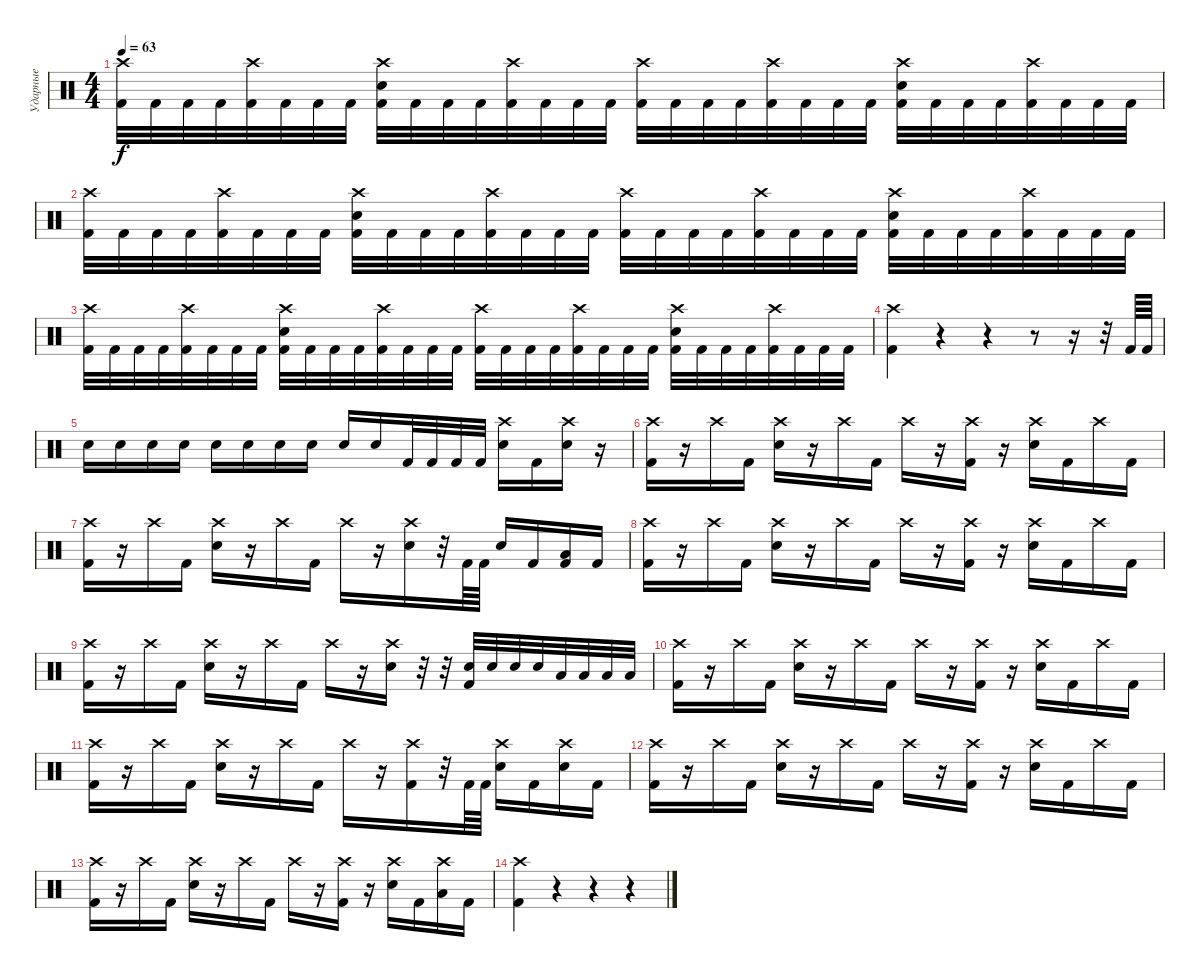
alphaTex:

\track ("Ударные" "Ударные") {instrument percussion}
\staff {score}
\articulation defaults
\ts (4 4)
\tempo 63
\clef neutral
\ks c
("Crash high (hit)" "Kick (hit) 2").32{dy f} "Kick (hit) 2".32 "Kick (hit) 2".32 "Kick (hit) 2".32 ("Crash high (hit)" "Kick (hit) 2").32 "Kick (hit) 2".32 "Kick (hit) 2".32 "Kick (hit) 2".32 ("Crash high (hit)" "Electric Snare (hit)" "Kick (hit) 2").32 "Kick (hit) 2".32 "Kick (hit) 2".32 "Kick (hit) 2".32 ("Crash high (hit)" "Kick (hit) 2").32 "Kick (hit) 2".32 "Kick (hit) 2".32 "Kick (hit) 2".32 ("Crash high (hit)" "Kick (hit) 2").32 "Kick (hit) 2".32 "Kick (hit) 2".32 "Kick (hit) 2".32 ("Crash high (hit)" "Kick (hit) 2").32 "Kick (hit) 2".32 "Kick (hit) 2".32 "Kick (hit) 2".32 ("Crash high (hit)" "Electric Snare (hit)" "Kick (hit) 2").32 "Kick (hit) 2".32 "Kick (hit) 2".32 "Kick (hit) 2".32 ("Crash high (hit)" "Kick (hit) 2").32 "Kick (hit) 2".32 "Kick (hit) 2".32 "Kick (hit) 2".32 |
("Crash high (hit)" "Kick (hit) 2").32 "Kick (hit) 2".32 "Kick (hit) 2".32 "Kick (hit) 2".32 ("Crash high (hit)" "Kick (hit) 2").32 "Kick (hit) 2".32 "Kick (hit) 2".32 "Kick (hit) 2".32 ("Crash high (hit)" "Electric Snare (hit)" "Kick (hit) 2").32 "Kick (hit) 2".32 "Kick (hit) 2".32 "Kick (hit) 2".32 ("Crash high (hit)" "Kick (hit) 2").32 "Kick (hit) 2".32 "Kick (hit) 2".32 "Kick (hit) 2".32 ("Crash high (hit)" "Kick (hit) 2").32 "Kick (hit) 2".32 "Kick (hit) 2".32 "Kick (hit) 2".32 ("Crash high (hit)" "Kick (hit) 2").32 "Kick (hit) 2".32 "Kick (hit) 2".32 "Kick (hit) 2".32 ("Crash high (hit)" "Electric Snare (hit)" "Kick (hit) 2").32 "Kick (hit) 2".32 "Kick (hit) 2".32 "Kick (hit) 2".32 ("Crash high (hit)" "Kick (hit) 2").32 "Kick (hit) 2".32 "Kick (hit) 2".32 "Kick (hit) 2".32 |
("Crash high (hit)" "Kick (hit) 2").32 "Kick (hit) 2".32 "Kick (hit) 2".32 "Kick (hit) 2".32 ("Crash high (hit)" "Kick (hit) 2").32 "Kick (hit) 2".32 "Kick (hit) 2".32 "Kick (hit) 2".32 ("Crash high (hit)" "Electric Snare (hit)" "Kick (hit) 2").32 "Kick (hit) 2".32 "Kick (hit) 2".32 "Kick (hit) 2".32 ("Crash high (hit)" "Kick (hit) 2").32 "Kick (hit) 2".32 "Kick (hit) 2".32 "Kick (hit) 2".32 ("Crash high (hit)" "Kick (hit) 2").32 "Kick (hit) 2".32 "Kick (hit) 2".32 "Kick (hit) 2".32 ("Crash high (hit)" "Kick (hit) 2").32 "Kick (hit) 2".32 "Kick (hit) 2".32 "Kick (hit) 2".32 ("Crash high (hit)" "Electric Snare (hit)" "Kick (hit) 2").32 "Kick (hit) 2".32 "Kick (hit) 2".32 "Kick (hit) 2".32 ("Crash high (hit)" "Kick (hit) 2").32 "Kick (hit) 2".32 "Kick (hit) 2".32 "Kick (hit) 2".32 |
("Crash high (hit)" "Kick (hit) 2").4 r.4 r.4 r.8 r.16 r.32 "Kick (hit) 2".64 "Kick (hit) 2".64 |
"Electric Snare (hit)".16 "Electric Snare (hit)".16 "Electric Snare (hit)".16 "Electric Snare (hit)".16 "Electric Snare (hit)".16 "Electric Snare (hit)".16 "Electric Snare (hit)".16 "Electric Snare (hit)".16 "Electric Snare (hit)".16 "Electric Snare (hit)".16 "Kick (hit) 2".32 "Kick (hit) 2".32 "Kick (hit) 2".32 "Kick (hit) 2".32 ("Crash high (hit)" "Electric Snare (hit)").16 "Kick (hit) 2".16 ("Crash high (hit)" "Electric Snare (hit)").16 r.16 |
("Crash high (hit)" "Kick (hit) 2").16 r.16 "Crash high (hit)".16 "Kick (hit) 2".16 ("Crash high (hit)" "Electric Snare (hit)").16 r.16 "Crash high (hit)".16 "Kick (hit) 2".16 "Crash high (hit)".16 r.16 ("Crash high (hit)" "Kick (hit) 2").16 r.16 ("Crash high (hit)" "Electric Snare (hit)").16 "Kick (hit) 2".16 "Crash high (hit)".16 "Kick (hit) 2".16 |
("Crash high (hit)" "Kick (hit) 2").16 r.16 "Crash high (hit)".16 "Kick (hit) 2".16 ("Crash high (hit)" "Electric Snare (hit)").16 r.16 "Crash high (hit)".16 "Kick (hit) 2".16 "Crash high (hit)".16 r.16 ("Crash high (hit)" "Electric Snare (hit)").16 r.32 "Kick (hit) 2".64 "Kick (hit) 2".64 "Electric Snare (hit)".16 "Kick (hit) 2".16 ("Low Floor Tom (hit)" "Kick (hit) 2").16 "Kick (hit) 2".16 |
("Crash high (hit)" "Kick (hit) 2").16 r.16 "Crash high (hit)".16 "Kick (hit) 2".16 ("Crash high (hit)" "Electric Snare (hit)").16 r.16 "Crash high (hit)".16 "Kick (hit) 2".16 "Crash high (hit)".16 r.16 ("Crash high (hit)" "Kick (hit) 2").16 r.16 ("Crash high (hit)" "Electric Snare (hit)").16 "Kick (hit) 2".16 "Crash high (hit)".16 "Kick (hit) 2".16 |
("Crash high (hit)" "Kick (hit) 2").16 r.16 "Crash high (hit)".16 "Kick (hit) 2".16 ("Crash high (hit)" "Electric Snare (hit)").16 r.16 "Crash high (hit)".16 "Kick (hit) 2".16 "Crash high (hit)".16 r.16 ("Crash high (hit)" "Electric Snare (hit)").16 r.32 r.32 ("Electric Snare (hit)" "Kick (hit) 2").32 "Electric Snare (hit)".32 "Electric Snare (hit)".32 "Electric Snare (hit)".32 "Low Floor Tom (hit)".32 "Low Floor Tom (hit)".32 "Low Floor Tom (hit)".32 "Low Floor Tom (hit)".32 |
("Crash high (hit)" "Kick (hit) 2").16 r.16 "Crash high (hit)".16 "Kick (hit) 2".16 ("Crash high (hit)" "Electric Snare (hit)").16 r.16 "Crash high (hit)".16 "Kick (hit) 2".16 "Crash high (hit)".16 r.16 ("Crash high (hit)" "Kick (hit) 2").16 r.16 ("Crash high (hit)" "Electric Snare (hit)").16 "Kick (hit) 2".16 "Crash high (hit)".16 "Kick (hit) 2".16 |
("Crash high (hit)" "Kick (hit) 2").16 r.16 "Crash high (hit)".16 "Kick (hit) 2".16 ("Crash high (hit)" "Electric Snare (hit)").16 r.16 "Crash high (hit)".16 "Kick (hit) 2".16 "Crash high (hit)".16 r.16 ("Crash high (hit)" "Kick (hit) 2").16 r.32 "Kick (hit) 2".64 "Kick (hit) 2".64 ("Crash high (hit)" "Electric Snare (hit)").16 "Kick (hit) 2".16 ("Crash high (hit)" "Electric Snare (hit)").16 "Kick (hit) 2".16 |
("Crash high (hit)" "Kick (hit) 2").16 r.16 "Crash high (hit)".16 "Kick (hit) 2".16 ("Crash high (hit)" "Electric Snare (hit)").16 r.16 "Crash high (hit)".16 "Kick (hit) 2".16 "Crash high (hit)".16 r.16 ("Crash high (hit)" "Kick (hit) 2").16 r.16 ("Crash high (hit)" "Electric Snare (hit)").16 "Kick (hit) 2".16 "Crash high (hit)".16 "Kick (hit) 2".16 |
("Crash high (hit)" "Kick (hit) 2").16 r.16 "Crash high (hit)".16 "Kick (hit) 2".16 ("Crash high (hit)" "Electric Snare (hit)").16 r.16 "Crash high (hit)".16 "Kick (hit) 2".16 "Crash high (hit)".16 r.16 ("Crash high (hit)" "Kick (hit) 2").16 r.16 ("Crash high (hit)" "Electric Snare (hit)").16 "Kick (hit) 2".16 ("Crash high (hit)" "Low Floor Tom (hit)").16 "Kick (hit) 2".16 |
("Crash high (hit)" "Kick (hit) 2").4 r.4 r.4 r.4
